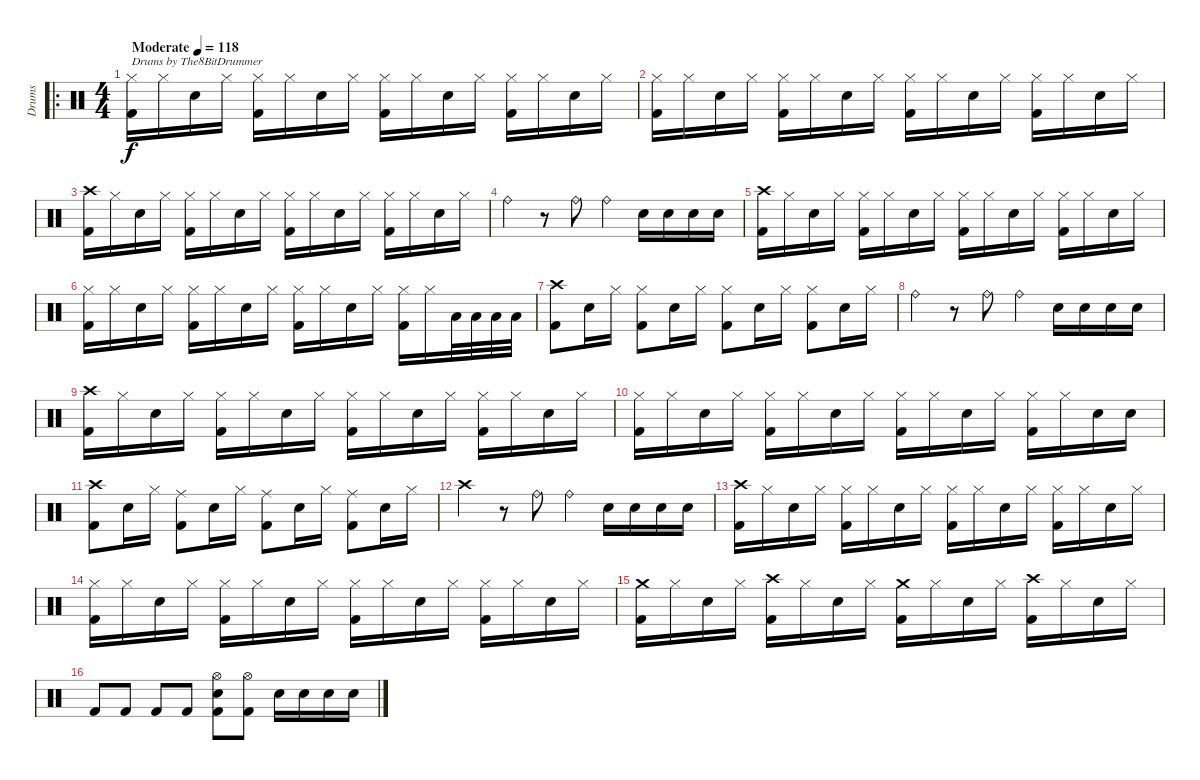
\track ("Drums" "Drums") {instrument percussion}
\staff
\articulation defaults
\ro
\ts (4 4)
\tempo (118 "Moderate")
\clef neutral
\ks c
("Hi-Hat (closed)" "Kick (hit) 2").16{txt "Drums by The8BitDrummer" dy f} "Hi-Hat (closed)".16 "Snare (hit) 2".16 "Hi-Hat (closed)".16 ("Hi-Hat (closed)" "Kick (hit) 2").16 "Hi-Hat (closed)".16 "Snare (hit) 2".16 "Hi-Hat (closed)".16 ("Hi-Hat (closed)" "Kick (hit) 2").16 "Hi-Hat (closed)".16 "Snare (hit) 2".16 "Hi-Hat (closed)".16 ("Hi-Hat (closed)" "Kick (hit) 2").16 "Hi-Hat (closed)".16 "Snare (hit) 2".16 "Hi-Hat (closed)".16 |
("Hi-Hat (closed)" "Kick (hit) 2").16 "Hi-Hat (closed)".16 "Snare (hit) 2".16 "Hi-Hat (closed)".16 ("Hi-Hat (closed)" "Kick (hit) 2").16 "Hi-Hat (closed)".16 "Snare (hit) 2".16 "Hi-Hat (closed)".16 ("Hi-Hat (closed)" "Kick (hit) 2").16 "Hi-Hat (closed)".16 "Snare (hit) 2".16 "Hi-Hat (closed)".16 ("Hi-Hat (closed)" "Kick (hit) 2").16 "Hi-Hat (closed)".16 "Snare (hit) 2".16 "Hi-Hat (closed)".16 |
("Crash high (hit)" "Kick (hit) 2").16 "Hi-Hat (closed)".16 "Snare (hit) 2".16 "Hi-Hat (closed)".16 ("Hi-Hat (closed)" "Kick (hit) 2").16 "Hi-Hat (closed)".16 "Snare (hit) 2".16 "Hi-Hat (closed)".16 ("Hi-Hat (closed)" "Kick (hit) 2").16 "Hi-Hat (closed)".16 "Snare (hit) 2".16 "Hi-Hat (closed)".16 ("Hi-Hat (closed)" "Kick (hit) 2").16 "Hi-Hat (closed)".16 "Snare (hit) 2".16 "Hi-Hat (closed)".16 |
"Ride (bell)".4 r.8 "Ride (bell)".8 "Ride (bell)".4 "Snare (hit) 2".16 "Snare (hit) 2".16 "Snare (hit) 2".16 "Snare (hit) 2".16 |
("Crash high (hit)" "Kick (hit) 2").16 "Hi-Hat (closed)".16 "Snare (hit) 2".16 "Hi-Hat (closed)".16 ("Hi-Hat (closed)" "Kick (hit) 2").16 "Hi-Hat (closed)".16 "Snare (hit) 2".16 "Hi-Hat (closed)".16 ("Hi-Hat (closed)" "Kick (hit) 2").16 "Hi-Hat (closed)".16 "Snare (hit) 2".16 "Hi-Hat (closed)".16 ("Hi-Hat (closed)" "Kick (hit) 2").16 "Hi-Hat (closed)".16 "Snare (hit) 2".16 "Hi-Hat (closed)".16 |
("Hi-Hat (closed)" "Kick (hit) 2").16 "Hi-Hat (closed)".16 "Snare (hit) 2".16 "Hi-Hat (closed)".16 ("Hi-Hat (closed)" "Kick (hit) 2").16 "Hi-Hat (closed)".16 "Snare (hit) 2".16 "Hi-Hat (closed)".16 ("Hi-Hat (closed)" "Kick (hit) 2").16 "Hi-Hat (closed)".16 "Snare (hit) 2".16 "Hi-Hat (closed)".16 ("Hi-Hat (closed)" "Kick (hit) 2").16 "Hi-Hat (closed)".16 "Low Tom (hit)".32 "Low Tom (hit)".32 "Low Tom (hit)".32 "Low Tom (hit)".32 |
("Crash high (hit)" "Kick (hit) 2").8 "Snare (hit) 2".16 "Hi-Hat (closed)".16 ("Hi-Hat (closed)" "Kick (hit) 2").8 "Snare (hit) 2".16 "Hi-Hat (closed)".16 ("Hi-Hat (closed)" "Kick (hit) 2").8 "Snare (hit) 2".16 "Hi-Hat (closed)".16 ("Hi-Hat (closed)" "Kick (hit) 2").8 "Snare (hit) 2".16 "Hi-Hat (closed)".16 |
"Ride (bell)".4 r.8 "Ride (bell)".8 "Ride (bell)".4 "Snare (hit) 2".16 "Snare (hit) 2".16 "Snare (hit) 2".16 "Snare (hit) 2".16 |
("Crash high (hit)" "Kick (hit) 2").16 "Hi-Hat (closed)".16 "Snare (hit) 2".16 "Hi-Hat (closed)".16 ("Hi-Hat (closed)" "Kick (hit) 2").16 "Hi-Hat (closed)".16 "Snare (hit) 2".16 "Hi-Hat (closed)".16 ("Hi-Hat (closed)" "Kick (hit) 2").16 "Hi-Hat (closed)".16 "Snare (hit) 2".16 "Hi-Hat (closed)".16 ("Hi-Hat (closed)" "Kick (hit) 2").16 "Hi-Hat (closed)".16 "Snare (hit) 2".16 "Hi-Hat (closed)".16 |
("Hi-Hat (closed)" "Kick (hit) 2").16 "Hi-Hat (closed)".16 "Snare (hit) 2".16 "Hi-Hat (closed)".16 ("Hi-Hat (closed)" "Kick (hit) 2").16 "Hi-Hat (closed)".16 "Snare (hit) 2".16 "Hi-Hat (closed)".16 ("Hi-Hat (closed)" "Kick (hit) 2").16 "Hi-Hat (closed)".16 "Snare (hit) 2".16 "Hi-Hat (closed)".16 ("Hi-Hat (closed)" "Kick (hit) 2").16 "Hi-Hat (closed)".16 "Snare (hit) 2".16 "Snare (hit) 2".16 |
("Crash high (hit)" "Kick (hit) 2").8 "Snare (hit) 2".16 "Hi-Hat (closed)".16 ("Ride (middle)" "Kick (hit) 2").8 "Snare (hit) 2".16 "Hi-Hat (closed)".16 ("Ride (middle)" "Kick (hit) 2").8 "Snare (hit) 2".16 "Hi-Hat (closed)".16 ("Ride (middle)" "Kick (hit) 2").8 "Snare (hit) 2".16 "Hi-Hat (closed)".16 |
"Crash high (hit)".4 r.8 "Ride (bell)".8 "Ride (bell)".4 "Snare (hit) 2".16 "Snare (hit) 2".16 "Snare (hit) 2".16 "Snare (hit) 2".16 |
("Crash high (hit)" "Kick (hit) 2").16 "Hi-Hat (closed)".16 "Snare (hit) 2".16 "Hi-Hat (closed)".16 ("Hi-Hat (closed)" "Kick (hit) 2").16 "Hi-Hat (closed)".16 "Snare (hit) 2".16 "Hi-Hat (closed)".16 ("Hi-Hat (closed)" "Kick (hit) 2").16 "Hi-Hat (closed)".16 "Snare (hit) 2".16 "Hi-Hat (closed)".16 ("Hi-Hat (closed)" "Kick (hit) 2").16 "Hi-Hat (closed)".16 "Snare (hit) 2".16 "Hi-Hat (closed)".16 |
("Hi-Hat (closed)" "Kick (hit) 2").16 "Hi-Hat (closed)".16 "Snare (hit) 2".16 "Hi-Hat (closed)".16 ("Hi-Hat (closed)" "Kick (hit) 2").16 "Hi-Hat (closed)".16 "Snare (hit) 2".16 "Hi-Hat (closed)".16 ("Hi-Hat (closed)" "Kick (hit) 2").16 "Hi-Hat (closed)".16 "Snare (hit) 2".16 "Hi-Hat (closed)".16 ("Hi-Hat (closed)" "Kick (hit) 2").16 "Hi-Hat (closed)".16 "Snare (hit) 2".16 "Hi-Hat (closed)".16 |
("Crash medium (hit)" "Kick (hit) 2").16 "Hi-Hat (closed)".16 "Snare (hit) 2".16 "Hi-Hat (closed)".16 ("Crash high (hit)" "Kick (hit) 2").16 "Hi-Hat (closed)".16 "Snare (hit) 2".16 "Hi-Hat (closed)".16 ("Crash medium (hit)" "Kick (hit) 2").16 "Hi-Hat (closed)".16 "Snare (hit) 2".16 "Hi-Hat (closed)".16 ("Crash high (hit)" "Kick (hit) 2").16 "Hi-Hat (closed)".16 "Snare (hit) 2".16 "Hi-Hat (closed)".16 |
"Kick (hit) 2".8 "Kick (hit) 2".8 "Kick (hit) 2".8 "Kick (hit) 2".8 ("Hi-Hat (open)" "Snare (hit) 2" "Kick (hit) 2").8 ("Hi-Hat (open)" "Kick (hit) 2").8 "Snare (hit) 2".16 "Snare (hit) 2".16 "Snare (hit) 2".16 "Snare (hit) 2".16
